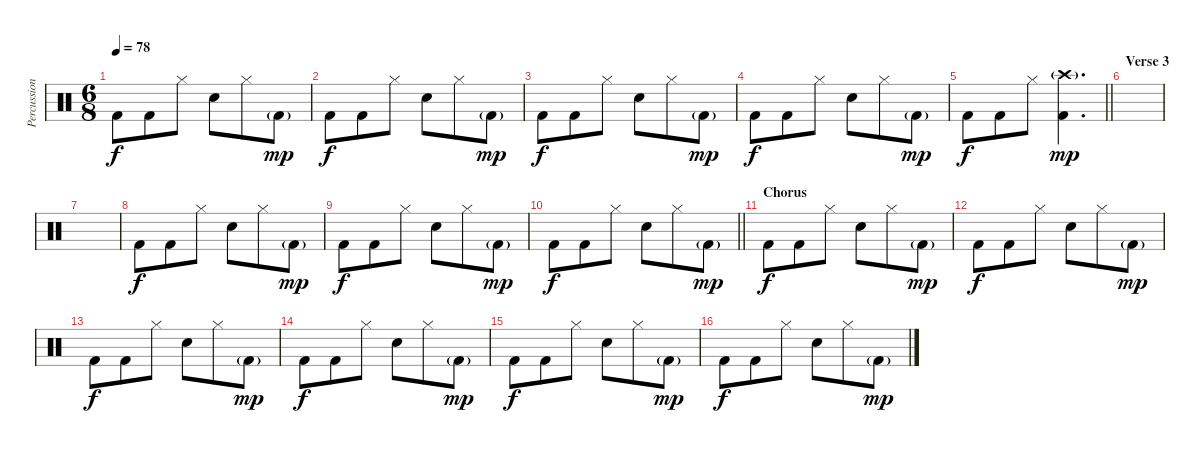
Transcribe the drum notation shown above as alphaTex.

\track ("Percussion" "Percussion") {instrument percussion}
\staff {score}
\articulation defaults
\ts (6 8)
\tempo 78
\clef neutral
\ks c "Kick (hit) 2".8{dy f} "Kick (hit) 2".8 "Hi-Hat (closed)".8 "Snare (hit) 2".8 "Hi-Hat (closed)".8 "Kick (hit) 2"{g}.8{dy mp}
|
"Kick (hit) 2".8{dy f} "Kick (hit) 2".8 "Hi-Hat (closed)".8 "Snare (hit) 2".8 "Hi-Hat (closed)".8 "Kick (hit) 2"{g}.8{dy mp} |
"Kick (hit) 2".8{dy f} "Kick (hit) 2".8 "Hi-Hat (closed)".8 "Snare (hit) 2".8 "Hi-Hat (closed)".8 "Kick (hit) 2"{g}.8{dy mp} |
"Kick (hit) 2".8{dy f} "Kick (hit) 2".8 "Hi-Hat (closed)".8 "Snare (hit) 2".8 "Hi-Hat (closed)".8 "Kick (hit) 2"{g}.8{dy mp} |
\barLineRight lightlight "Kick (hit) 2".8{dy f} "Kick (hit) 2".8 "Hi-Hat (closed)".8
("Crash high (hit)"{g} "Kick (hit) 2").4{d dy mp} |
\section ("" "Verse 3")
|
|
"Kick (hit) 2".8{dy f} "Kick (hit) 2".8 "Hi-Hat (closed)".8 "Snare (hit) 2".8 "Hi-Hat (closed)".8 "Kick (hit) 2"{g}.8{dy mp} |
"Kick (hit) 2".8{dy f} "Kick (hit) 2".8 "Hi-Hat (closed)".8 "Snare (hit) 2".8 "Hi-Hat (closed)".8 "Kick (hit) 2"{g}.8{dy mp} |
\barLineRight lightlight "Kick (hit) 2".8{dy f} "Kick (hit) 2".8 "Hi-Hat (closed)".8 "Snare (hit) 2".8 "Hi-Hat (closed)".8 "Kick (hit) 2"{g}.8{dy mp}
|
\section ("" "Chorus")
"Kick (hit) 2".8{dy f} "Kick (hit) 2".8 "Hi-Hat (closed)".8 "Snare (hit) 2".8 "Hi-Hat (closed)".8 "Kick (hit) 2"{g}.8{dy mp} |
"Kick (hit) 2".8{dy f} "Kick (hit) 2".8 "Hi-Hat (closed)".8 "Snare (hit) 2".8 "Hi-Hat (closed)".8 "Kick (hit) 2"{g}.8{dy mp} |
"Kick (hit) 2".8{dy f} "Kick (hit) 2".8 "Hi-Hat (closed)".8 "Snare (hit) 2".8 "Hi-Hat (closed)".8 "Kick (hit) 2"{g}.8{dy mp} |
"Kick (hit) 2".8{dy f} "Kick (hit) 2".8 "Hi-Hat (closed)".8 "Snare (hit) 2".8 "Hi-Hat (closed)".8 "Kick (hit) 2"{g}.8{dy mp} |
"Kick (hit) 2".8{dy f} "Kick (hit) 2".8 "Hi-Hat (closed)".8 "Snare (hit) 2".8 "Hi-Hat (closed)".8 "Kick (hit) 2"{g}.8{dy mp} |
"Kick (hit) 2".8{dy f} "Kick (hit) 2".8 "Hi-Hat (closed)".8 "Snare (hit) 2".8 "Hi-Hat (closed)".8 "Kick (hit) 2"{g}.8{dy mp}
